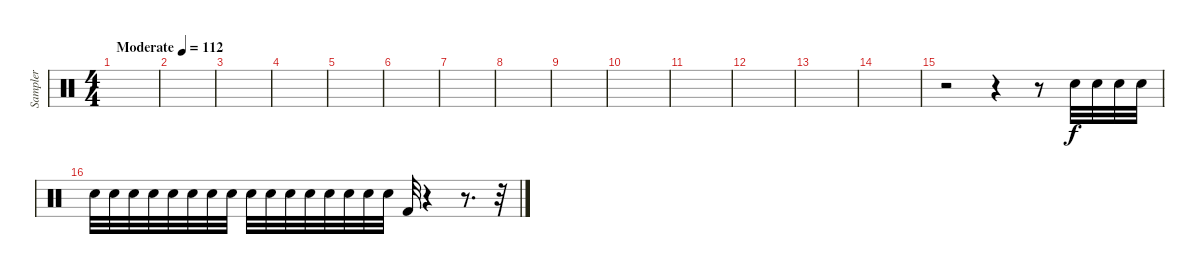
\track ("Sampler" "Sampler") {instrument percussion}
\staff {score}
\articulation defaults
\ts (4 4)
\tempo (112 "Moderate")
\clef neutral
\ks c
|
|
|
|
|
|
|
|
|
|
|
|
|
|
r.2 r.4 r.8 "Snare (hit) 2".32 "Snare (hit) 2".32 "Snare (hit) 2".32 "Snare (hit) 2".32 |
"Snare (hit) 2".32 "Snare (hit) 2".32 "Snare (hit) 2".32 "Snare (hit) 2".32 "Snare (hit) 2".32 "Snare (hit) 2".32 "Snare (hit) 2".32 "Snare (hit) 2".32 "Snare (hit) 2".32 "Snare (hit) 2".32 "Snare (hit) 2".32 "Snare (hit) 2".32 "Snare (hit) 2".32 "Snare (hit) 2".32 "Snare (hit) 2".32 "Snare (hit) 2".32 "Kick (hit) 2".32 r.4 r.8{d} r.32
